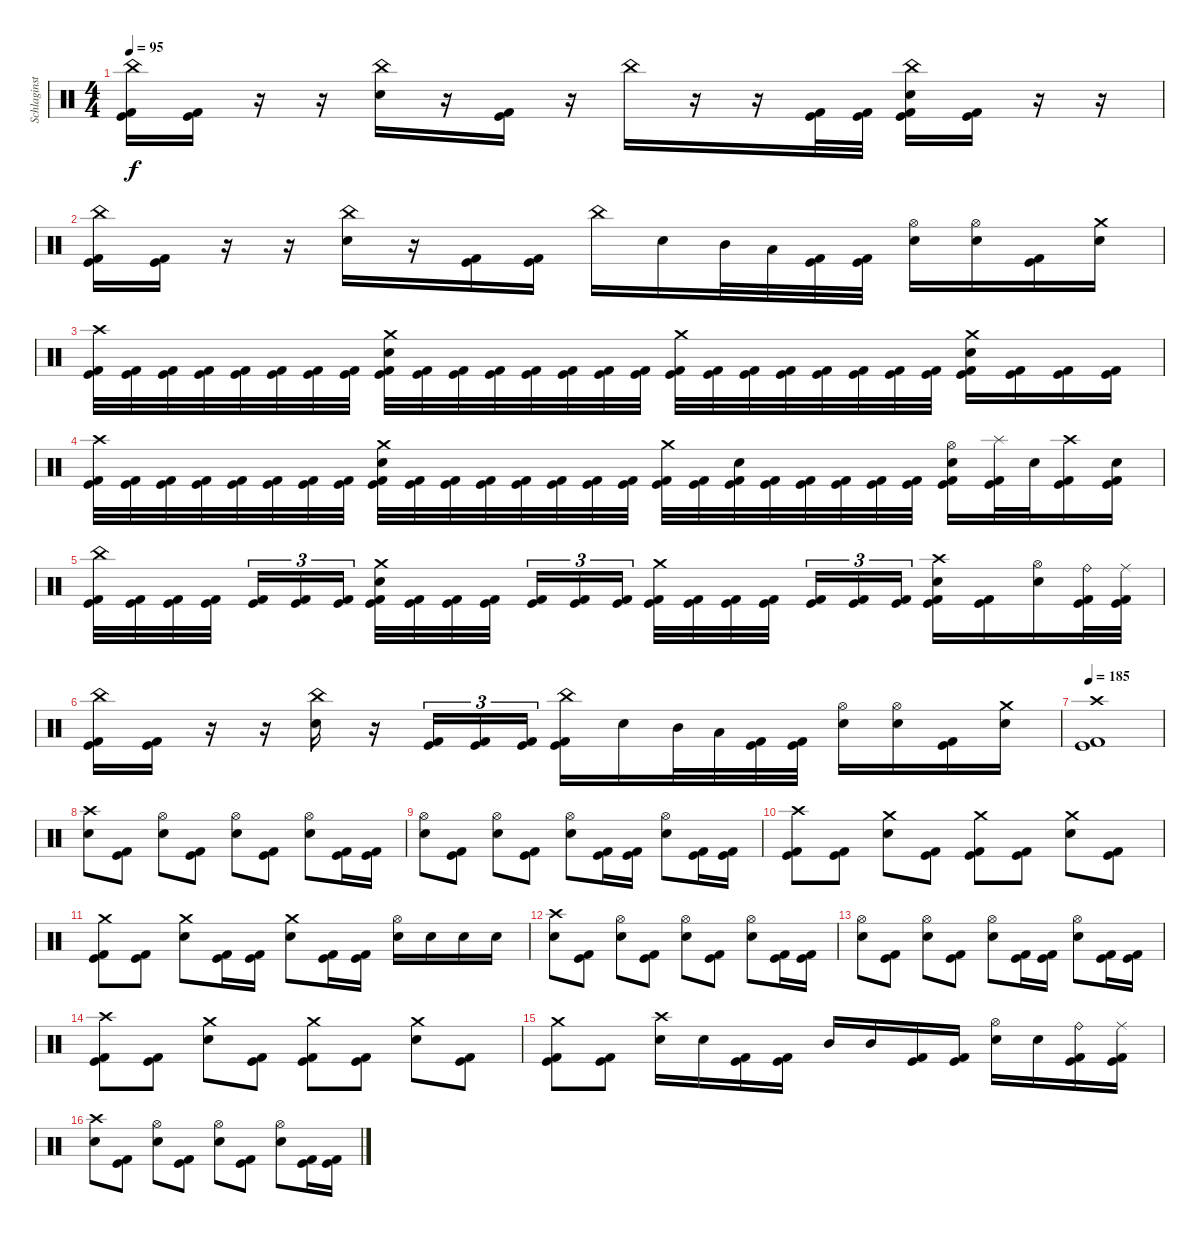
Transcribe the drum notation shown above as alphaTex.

\track ("Schlaginstrumente - Auswahl" "Schlaginst") {instrument percussion}
\staff {score}
\articulation defaults
\ts (4 4)
\tempo 95
\clef neutral
\ks c
("China (hit)" "Kick (hit)" "Kick (hit) 2").16{dy f} ("Kick (hit)" "Kick (hit) 2").16 r.16 r.16 ("China (hit)" "Electric Snare (hit)").16 r.16 ("Kick (hit)" "Kick (hit) 2").16 r.16 "China (hit)".16 r.16 r.16 ("Kick (hit)" "Kick (hit) 2").32 ("Kick (hit)" "Kick (hit) 2").32 ("China (hit)" "Electric Snare (hit)" "Kick (hit)" "Kick (hit) 2").16 ("Kick (hit)" "Kick (hit) 2").16 r.16 r.16 |
("China (hit)" "Kick (hit)" "Kick (hit) 2").16 ("Kick (hit)" "Kick (hit) 2").16 r.16 r.16 ("China (hit)" "Electric Snare (hit)").16 r.16 ("Kick (hit)" "Kick (hit) 2").16 ("Kick (hit)" "Kick (hit) 2").16 "China (hit)".16 "Electric Snare (hit)".16 "Mid Tom (hit)".32 "Low Tom (hit)".32 ("Kick (hit)" "Kick (hit) 2").32 ("Kick (hit)" "Kick (hit) 2").32 ("Hi-Hat (open)" "Electric Snare (hit)").16 ("Hi-Hat (open)" "Electric Snare (hit)").16 ("Kick (hit)" "Kick (hit) 2").16 ("Crash medium (hit)" "Electric Snare (hit)").16 |
("Crash high (hit)" "Kick (hit)" "Kick (hit) 2").32 ("Kick (hit)" "Kick (hit) 2").32 ("Kick (hit)" "Kick (hit) 2").32 ("Kick (hit)" "Kick (hit) 2").32 ("Kick (hit)" "Kick (hit) 2").32 ("Kick (hit)" "Kick (hit) 2").32 ("Kick (hit)" "Kick (hit) 2").32 ("Kick (hit)" "Kick (hit) 2").32 ("Crash medium (hit)" "Electric Snare (hit)" "Kick (hit)" "Kick (hit) 2").32 ("Kick (hit)" "Kick (hit) 2").32 ("Kick (hit)" "Kick (hit) 2").32 ("Kick (hit)" "Kick (hit) 2").32 ("Kick (hit)" "Kick (hit) 2").32 ("Kick (hit)" "Kick (hit) 2").32 ("Kick (hit)" "Kick (hit) 2").32 ("Kick (hit)" "Kick (hit) 2").32 ("Crash medium (hit)" "Kick (hit)" "Kick (hit) 2").32 ("Kick (hit)" "Kick (hit) 2").32 ("Kick (hit)" "Kick (hit) 2").32 ("Kick (hit)" "Kick (hit) 2").32 ("Kick (hit)" "Kick (hit) 2").32 ("Kick (hit)" "Kick (hit) 2").32 ("Kick (hit)" "Kick (hit) 2").32 ("Kick (hit)" "Kick (hit) 2").32 ("Crash medium (hit)" "Electric Snare (hit)" "Kick (hit)" "Kick (hit) 2").16 ("Kick (hit)" "Kick (hit) 2").16 ("Kick (hit)" "Kick (hit) 2").16 ("Kick (hit)" "Kick (hit) 2").16 |
("Crash high (hit)" "Kick (hit)" "Kick (hit) 2").32 ("Kick (hit)" "Kick (hit) 2").32 ("Kick (hit)" "Kick (hit) 2").32 ("Kick (hit)" "Kick (hit) 2").32 ("Kick (hit)" "Kick (hit) 2").32 ("Kick (hit)" "Kick (hit) 2").32 ("Kick (hit)" "Kick (hit) 2").32 ("Kick (hit)" "Kick (hit) 2").32 ("Crash medium (hit)" "Electric Snare (hit)" "Kick (hit)" "Kick (hit) 2").32 ("Kick (hit)" "Kick (hit) 2").32 ("Kick (hit)" "Kick (hit) 2").32 ("Kick (hit)" "Kick (hit) 2").32 ("Kick (hit)" "Kick (hit) 2").32 ("Kick (hit)" "Kick (hit) 2").32 ("Kick (hit)" "Kick (hit) 2").32 ("Kick (hit)" "Kick (hit) 2").32 ("Crash medium (hit)" "Kick (hit)" "Kick (hit) 2").32 ("Kick (hit)" "Kick (hit) 2").32 ("Electric Snare (hit)" "Kick (hit)" "Kick (hit) 2").32 ("Kick (hit)" "Kick (hit) 2").32 ("Kick (hit)" "Kick (hit) 2").32 ("Kick (hit)" "Kick (hit) 2").32 ("Kick (hit)" "Kick (hit) 2").32 ("Kick (hit)" "Kick (hit) 2").32 ("Hi-Hat (open)" "Electric Snare (hit)" "Kick (hit)" "Kick (hit) 2").16 ("Splash (hit)" "Kick (hit)" "Kick (hit) 2").32 "Electric Snare (hit)".32 ("Crash high (hit)" "Kick (hit)" "Kick (hit) 2").16 ("Electric Snare (hit)" "Kick (hit)" "Kick (hit) 2").16 |
("China (hit)" "Kick (hit)" "Kick (hit) 2").32 ("Kick (hit)" "Kick (hit) 2").32 ("Kick (hit)" "Kick (hit) 2").32 ("Kick (hit)" "Kick (hit) 2").32{beam splitsecondary} ("Kick (hit)" "Kick (hit) 2").16{tu (3 2)} ("Kick (hit)" "Kick (hit) 2").16{tu (3 2)} ("Kick (hit)" "Kick (hit) 2").16{tu (3 2)} ("Crash medium (hit)" "Electric Snare (hit)" "Kick (hit)" "Kick (hit) 2").32 ("Kick (hit)" "Kick (hit) 2").32 ("Kick (hit)" "Kick (hit) 2").32 ("Kick (hit)" "Kick (hit) 2").32{beam splitsecondary} ("Kick (hit)" "Kick (hit) 2").16{tu (3 2)} ("Kick (hit)" "Kick (hit) 2").16{tu (3 2)} ("Kick (hit)" "Kick (hit) 2").16{tu (3 2)} ("Crash medium (hit)" "Kick (hit)" "Kick (hit) 2").32 ("Kick (hit)" "Kick (hit) 2").32 ("Kick (hit)" "Kick (hit) 2").32 ("Kick (hit)" "Kick (hit) 2").32{beam splitsecondary} ("Kick (hit)" "Kick (hit) 2").16{tu (3 2)} ("Kick (hit)" "Kick (hit) 2").16{tu (3 2)} ("Kick (hit)" "Kick (hit) 2").16{tu (3 2)} ("Crash high (hit)" "Electric Snare (hit)" "Kick (hit)" "Kick (hit) 2").16 ("Kick (hit)" "Kick (hit) 2").16 ("Hi-Hat (open)" "Electric Snare (hit)").16 ("Ride (bell)" "Kick (hit)" "Kick (hit) 2").32 ("Ride (middle)" "Kick (hit)" "Kick (hit) 2").32 |
("China (hit)" "Kick (hit)" "Kick (hit) 2").16 ("Kick (hit)" "Kick (hit) 2").16 r.16 r.16 ("China (hit)" "Electric Snare (hit)").16 r.16 ("Kick (hit)" "Kick (hit) 2").16{tu (3 2)} ("Kick (hit)" "Kick (hit) 2").16{tu (3 2)} ("Kick (hit)" "Kick (hit) 2").16{tu (3 2)} ("China (hit)" "Kick (hit)" "Kick (hit) 2").16 "Electric Snare (hit)".16 "Mid Tom (hit)".32 "Low Tom (hit)".32 ("Kick (hit)" "Kick (hit) 2").32 ("Kick (hit)" "Kick (hit) 2").32 ("Hi-Hat (open)" "Electric Snare (hit)").16 ("Hi-Hat (open)" "Electric Snare (hit)").16 ("Kick (hit)" "Kick (hit) 2").16 ("Crash medium (hit)" "Electric Snare (hit)").16 |
\tempo 185
("Crash high (hit)" "Kick (hit)" "Kick (hit) 2").1 |
("Crash high (hit)" "Electric Snare (hit)").8 ("Kick (hit)" "Kick (hit) 2").8 ("Hi-Hat (open)" "Electric Snare (hit)").8 ("Kick (hit)" "Kick (hit) 2").8 ("Hi-Hat (open)" "Electric Snare (hit)").8 ("Kick (hit)" "Kick (hit) 2").8 ("Hi-Hat (open)" "Electric Snare (hit)").8 ("Kick (hit)" "Kick (hit) 2").16 ("Kick (hit)" "Kick (hit) 2").16 |
("Hi-Hat (open)" "Electric Snare (hit)").8 ("Kick (hit)" "Kick (hit) 2").8 ("Hi-Hat (open)" "Electric Snare (hit)").8 ("Kick (hit)" "Kick (hit) 2").8 ("Hi-Hat (open)" "Electric Snare (hit)").8 ("Kick (hit)" "Kick (hit) 2").16 ("Kick (hit)" "Kick (hit) 2").16 ("Hi-Hat (open)" "Electric Snare (hit)").8 ("Kick (hit)" "Kick (hit) 2").16 ("Kick (hit)" "Kick (hit) 2").16 |
("Crash high (hit)" "Kick (hit)" "Kick (hit) 2").8 ("Kick (hit)" "Kick (hit) 2").8 ("Crash medium (hit)" "Electric Snare (hit)").8 ("Kick (hit)" "Kick (hit) 2").8 ("Crash medium (hit)" "Kick (hit)" "Kick (hit) 2").8 ("Kick (hit)" "Kick (hit) 2").8 ("Crash medium (hit)" "Electric Snare (hit)").8 ("Kick (hit)" "Kick (hit) 2").8 |
("Crash medium (hit)" "Kick (hit)" "Kick (hit) 2").8 ("Kick (hit)" "Kick (hit) 2").8 ("Crash medium (hit)" "Electric Snare (hit)").8 ("Kick (hit)" "Kick (hit) 2").16 ("Kick (hit)" "Kick (hit) 2").16 ("Crash medium (hit)" "Electric Snare (hit)").8 ("Kick (hit)" "Kick (hit) 2").16 ("Kick (hit)" "Kick (hit) 2").16 ("Hi-Hat (open)" "Electric Snare (hit)").16 "Electric Snare (hit)".16 "Electric Snare (hit)".16 "Electric Snare (hit)".16 |
("Crash high (hit)" "Electric Snare (hit)").8 ("Kick (hit)" "Kick (hit) 2").8 ("Hi-Hat (open)" "Electric Snare (hit)").8 ("Kick (hit)" "Kick (hit) 2").8 ("Hi-Hat (open)" "Electric Snare (hit)").8 ("Kick (hit)" "Kick (hit) 2").8 ("Hi-Hat (open)" "Electric Snare (hit)").8 ("Kick (hit)" "Kick (hit) 2").16 ("Kick (hit)" "Kick (hit) 2").16 |
("Hi-Hat (open)" "Electric Snare (hit)").8 ("Kick (hit)" "Kick (hit) 2").8 ("Hi-Hat (open)" "Electric Snare (hit)").8 ("Kick (hit)" "Kick (hit) 2").8 ("Hi-Hat (open)" "Electric Snare (hit)").8 ("Kick (hit)" "Kick (hit) 2").16 ("Kick (hit)" "Kick (hit) 2").16 ("Hi-Hat (open)" "Electric Snare (hit)").8 ("Kick (hit)" "Kick (hit) 2").16 ("Kick (hit)" "Kick (hit) 2").16 |
("Crash high (hit)" "Kick (hit)" "Kick (hit) 2").8 ("Kick (hit)" "Kick (hit) 2").8 ("Crash medium (hit)" "Electric Snare (hit)").8 ("Kick (hit)" "Kick (hit) 2").8 ("Crash medium (hit)" "Kick (hit)" "Kick (hit) 2").8 ("Kick (hit)" "Kick (hit) 2").8 ("Crash medium (hit)" "Electric Snare (hit)").8 ("Kick (hit)" "Kick (hit) 2").8 |
("Crash medium (hit)" "Kick (hit)" "Kick (hit) 2").8 ("Kick (hit)" "Kick (hit) 2").8 ("Crash high (hit)" "Electric Snare (hit)").16 "Electric Snare (hit)".16 ("Kick (hit)" "Kick (hit) 2").16 ("Kick (hit)" "Kick (hit) 2").16 "Mid Tom (hit)".16 "Mid Tom (hit)".16 ("Kick (hit)" "Kick (hit) 2").16 ("Kick (hit)" "Kick (hit) 2").16 ("Hi-Hat (open)" "Electric Snare (hit)").16 "Electric Snare (hit)".16 ("Ride (bell)" "Kick (hit)" "Kick (hit) 2").16 ("Ride (middle)" "Kick (hit)" "Kick (hit) 2").16 |
("Crash high (hit)" "Electric Snare (hit)").8 ("Kick (hit)" "Kick (hit) 2").8 ("Hi-Hat (open)" "Electric Snare (hit)").8 ("Kick (hit)" "Kick (hit) 2").8 ("Hi-Hat (open)" "Electric Snare (hit)").8 ("Kick (hit)" "Kick (hit) 2").8 ("Hi-Hat (open)" "Electric Snare (hit)").8 ("Kick (hit)" "Kick (hit) 2").16 ("Kick (hit)" "Kick (hit) 2").16
